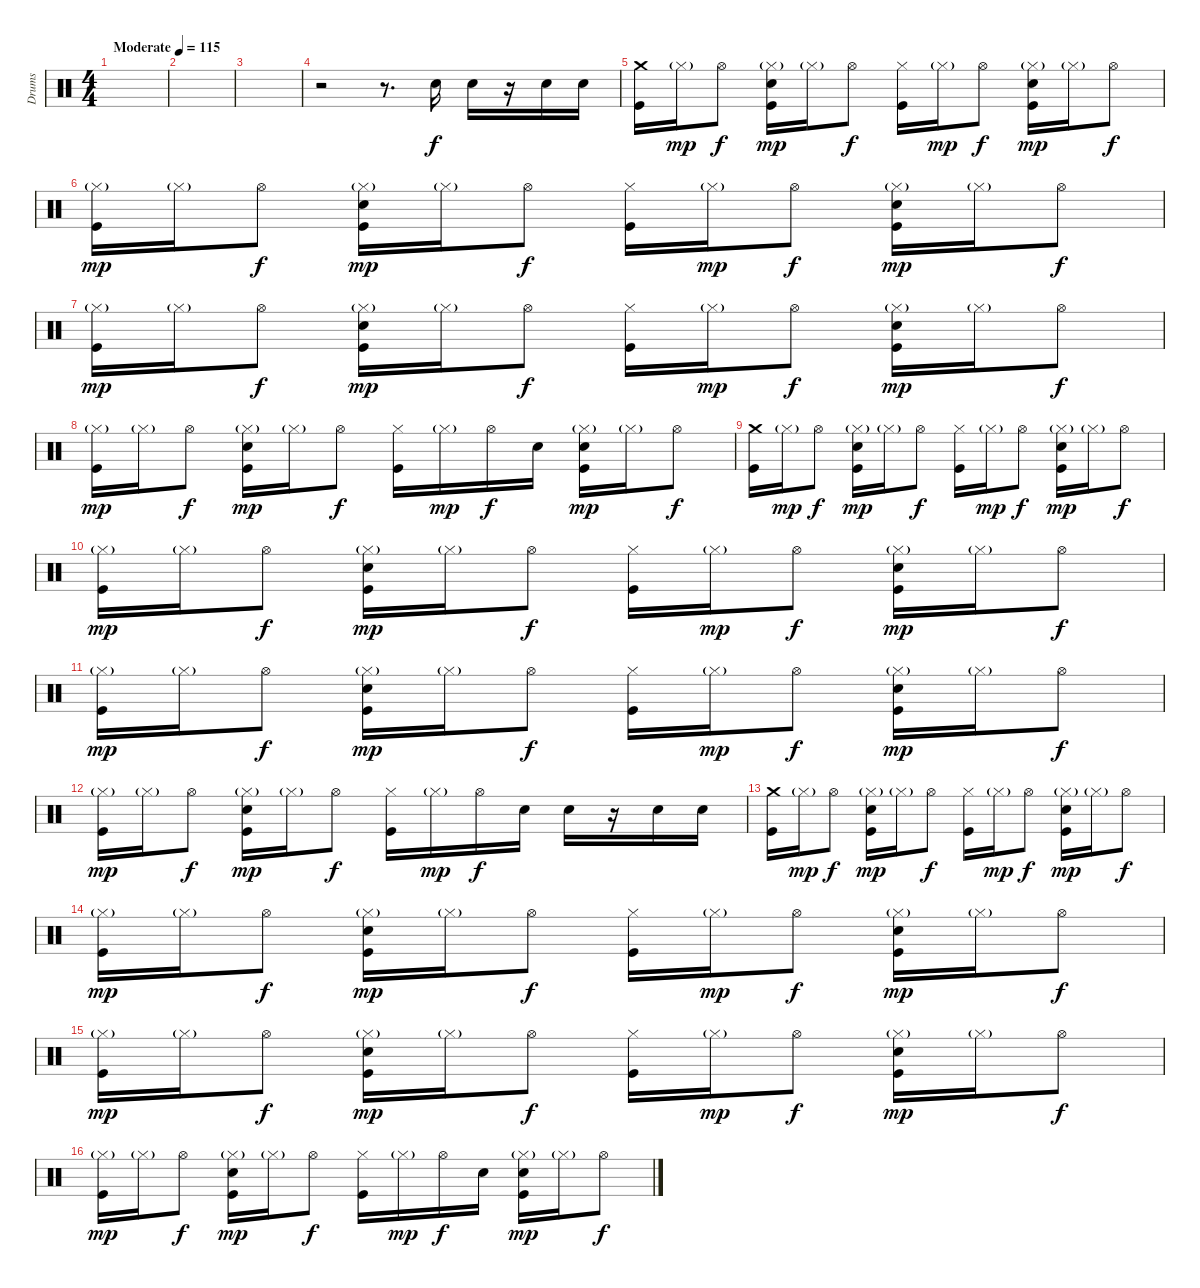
\track ("Drums" "Drums") {instrument percussion}
\staff {score}
\articulation defaults
\ts (4 4)
\tempo (115 "Moderate")
\clef neutral
\ks c
|
|
|
r.2 r.8{d} "Electric Snare (hit)".16 "Electric Snare (hit)".16 r.16 "Electric Snare (hit)".16 "Electric Snare (hit)".16 |
("Crash medium (hit)" "Kick (hit)").16 "Hi-Hat (closed)"{g}.16{dy mp} "Hi-Hat (open)".8{dy f} ("Hi-Hat (closed)"{g} "Electric Snare (hit)" "Kick (hit)").16{dy mp} "Hi-Hat (closed)"{g}.16 "Hi-Hat (open)".8{dy f} ("Hi-Hat (closed)" "Kick (hit)").16 "Hi-Hat (closed)"{g}.16{dy mp} "Hi-Hat (open)".8{dy f} ("Hi-Hat (closed)"{g} "Electric Snare (hit)" "Kick (hit)").16{dy mp} "Hi-Hat (closed)"{g}.16 "Hi-Hat (open)".8{dy f} |
("Hi-Hat (closed)"{g} "Kick (hit)").16{dy mp} "Hi-Hat (closed)"{g}.16 "Hi-Hat (open)".8{dy f} ("Hi-Hat (closed)"{g} "Electric Snare (hit)" "Kick (hit)").16{dy mp} "Hi-Hat (closed)"{g}.16 "Hi-Hat (open)".8{dy f} ("Hi-Hat (closed)" "Kick (hit)").16 "Hi-Hat (closed)"{g}.16{dy mp} "Hi-Hat (open)".8{dy f} ("Hi-Hat (closed)"{g} "Electric Snare (hit)" "Kick (hit)").16{dy mp} "Hi-Hat (closed)"{g}.16 "Hi-Hat (open)".8{dy f} |
("Hi-Hat (closed)"{g} "Kick (hit)").16{dy mp} "Hi-Hat (closed)"{g}.16 "Hi-Hat (open)".8{dy f} ("Hi-Hat (closed)"{g} "Electric Snare (hit)" "Kick (hit)").16{dy mp} "Hi-Hat (closed)"{g}.16 "Hi-Hat (open)".8{dy f} ("Hi-Hat (closed)" "Kick (hit)").16 "Hi-Hat (closed)"{g}.16{dy mp} "Hi-Hat (open)".8{dy f} ("Hi-Hat (closed)"{g} "Electric Snare (hit)" "Kick (hit)").16{dy mp} "Hi-Hat (closed)"{g}.16 "Hi-Hat (open)".8{dy f} |
("Hi-Hat (closed)"{g} "Kick (hit)").16{dy mp} "Hi-Hat (closed)"{g}.16 "Hi-Hat (open)".8{dy f} ("Hi-Hat (closed)"{g} "Electric Snare (hit)" "Kick (hit)").16{dy mp} "Hi-Hat (closed)"{g}.16 "Hi-Hat (open)".8{dy f} ("Hi-Hat (closed)" "Kick (hit)").16 "Hi-Hat (closed)"{g}.16{dy mp} "Hi-Hat (open)".16{dy f} "Electric Snare (hit)".16 ("Hi-Hat (closed)"{g} "Electric Snare (hit)" "Kick (hit)").16{dy mp} "Hi-Hat (closed)"{g}.16 "Hi-Hat (open)".8{dy f} |
("Crash medium (hit)" "Kick (hit)").16 "Hi-Hat (closed)"{g}.16{dy mp} "Hi-Hat (open)".8{dy f} ("Hi-Hat (closed)"{g} "Electric Snare (hit)" "Kick (hit)").16{dy mp} "Hi-Hat (closed)"{g}.16 "Hi-Hat (open)".8{dy f} ("Hi-Hat (closed)" "Kick (hit)").16 "Hi-Hat (closed)"{g}.16{dy mp} "Hi-Hat (open)".8{dy f} ("Hi-Hat (closed)"{g} "Electric Snare (hit)" "Kick (hit)").16{dy mp} "Hi-Hat (closed)"{g}.16 "Hi-Hat (open)".8{dy f} |
("Hi-Hat (closed)"{g} "Kick (hit)").16{dy mp} "Hi-Hat (closed)"{g}.16 "Hi-Hat (open)".8{dy f} ("Hi-Hat (closed)"{g} "Electric Snare (hit)" "Kick (hit)").16{dy mp} "Hi-Hat (closed)"{g}.16 "Hi-Hat (open)".8{dy f} ("Hi-Hat (closed)" "Kick (hit)").16 "Hi-Hat (closed)"{g}.16{dy mp} "Hi-Hat (open)".8{dy f} ("Hi-Hat (closed)"{g} "Electric Snare (hit)" "Kick (hit)").16{dy mp} "Hi-Hat (closed)"{g}.16 "Hi-Hat (open)".8{dy f} |
("Hi-Hat (closed)"{g} "Kick (hit)").16{dy mp} "Hi-Hat (closed)"{g}.16 "Hi-Hat (open)".8{dy f} ("Hi-Hat (closed)"{g} "Electric Snare (hit)" "Kick (hit)").16{dy mp} "Hi-Hat (closed)"{g}.16 "Hi-Hat (open)".8{dy f} ("Hi-Hat (closed)" "Kick (hit)").16 "Hi-Hat (closed)"{g}.16{dy mp} "Hi-Hat (open)".8{dy f} ("Hi-Hat (closed)"{g} "Electric Snare (hit)" "Kick (hit)").16{dy mp} "Hi-Hat (closed)"{g}.16 "Hi-Hat (open)".8{dy f} |
("Hi-Hat (closed)"{g} "Kick (hit)").16{dy mp} "Hi-Hat (closed)"{g}.16 "Hi-Hat (open)".8{dy f} ("Hi-Hat (closed)"{g} "Electric Snare (hit)" "Kick (hit)").16{dy mp} "Hi-Hat (closed)"{g}.16 "Hi-Hat (open)".8{dy f} ("Hi-Hat (closed)" "Kick (hit)").16 "Hi-Hat (closed)"{g}.16{dy mp} "Hi-Hat (open)".16{dy f} "Electric Snare (hit)".16 "Electric Snare (hit)".16 r.16 "Electric Snare (hit)".16 "Electric Snare (hit)".16 |
("Crash medium (hit)" "Kick (hit)").16 "Hi-Hat (closed)"{g}.16{dy mp} "Hi-Hat (open)".8{dy f} ("Hi-Hat (closed)"{g} "Electric Snare (hit)" "Kick (hit)").16{dy mp} "Hi-Hat (closed)"{g}.16 "Hi-Hat (open)".8{dy f} ("Hi-Hat (closed)" "Kick (hit)").16 "Hi-Hat (closed)"{g}.16{dy mp} "Hi-Hat (open)".8{dy f} ("Hi-Hat (closed)"{g} "Electric Snare (hit)" "Kick (hit)").16{dy mp} "Hi-Hat (closed)"{g}.16 "Hi-Hat (open)".8{dy f} |
("Hi-Hat (closed)"{g} "Kick (hit)").16{dy mp} "Hi-Hat (closed)"{g}.16 "Hi-Hat (open)".8{dy f} ("Hi-Hat (closed)"{g} "Electric Snare (hit)" "Kick (hit)").16{dy mp} "Hi-Hat (closed)"{g}.16 "Hi-Hat (open)".8{dy f} ("Hi-Hat (closed)" "Kick (hit)").16 "Hi-Hat (closed)"{g}.16{dy mp} "Hi-Hat (open)".8{dy f} ("Hi-Hat (closed)"{g} "Electric Snare (hit)" "Kick (hit)").16{dy mp} "Hi-Hat (closed)"{g}.16 "Hi-Hat (open)".8{dy f} |
("Hi-Hat (closed)"{g} "Kick (hit)").16{dy mp} "Hi-Hat (closed)"{g}.16 "Hi-Hat (open)".8{dy f} ("Hi-Hat (closed)"{g} "Electric Snare (hit)" "Kick (hit)").16{dy mp} "Hi-Hat (closed)"{g}.16 "Hi-Hat (open)".8{dy f} ("Hi-Hat (closed)" "Kick (hit)").16 "Hi-Hat (closed)"{g}.16{dy mp} "Hi-Hat (open)".8{dy f} ("Hi-Hat (closed)"{g} "Electric Snare (hit)" "Kick (hit)").16{dy mp} "Hi-Hat (closed)"{g}.16 "Hi-Hat (open)".8{dy f} |
("Hi-Hat (closed)"{g} "Kick (hit)").16{dy mp} "Hi-Hat (closed)"{g}.16 "Hi-Hat (open)".8{dy f} ("Hi-Hat (closed)"{g} "Electric Snare (hit)" "Kick (hit)").16{dy mp} "Hi-Hat (closed)"{g}.16 "Hi-Hat (open)".8{dy f} ("Hi-Hat (closed)" "Kick (hit)").16 "Hi-Hat (closed)"{g}.16{dy mp} "Hi-Hat (open)".16{dy f} "Electric Snare (hit)".16 ("Hi-Hat (closed)"{g} "Electric Snare (hit)" "Kick (hit)").16{dy mp} "Hi-Hat (closed)"{g}.16 "Hi-Hat (open)".8{dy f}
